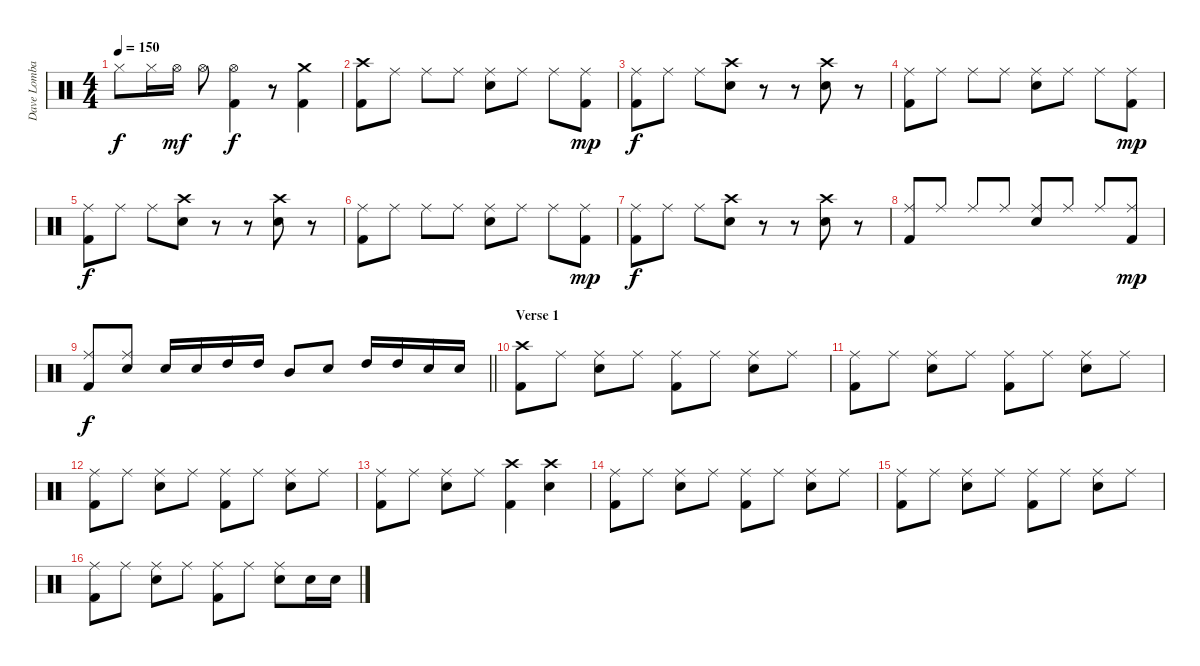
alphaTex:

\track ("Dave Lombardo (Drums)" "Dave Lomba") {instrument percussion}
\staff {score}
\articulation defaults
\ts (4 4)
\tempo 150
\clef neutral
\ks c "Hi-Hat (closed)".8{dy f} "Hi-Hat (closed)".16 "Hi-Hat (open)".16{dy mf} "Hi-Hat (open)".8
("Hi-Hat (open)" "Kick (hit) 2").4{dy f} r.8 ("Crash medium (hit)" "Kick (hit) 2").4 |
("Crash high (hit)" "Kick (hit) 2").8 "Ride (middle)".8 "Ride (middle)".8 "Ride (middle)".8 ("Ride (middle)" "Electric Snare (hit)").8 "Ride (middle)".8 "Ride (middle)".8 ("Ride (middle)" "Kick (hit) 2").8{dy mp} |
("Ride (middle)" "Kick (hit) 2").8{dy f} "Ride (middle)".8 "Ride (middle)".8 ("Crash high (hit)" "Electric Snare (hit)").8 r.8 r.8 ("Crash high (hit)" "Electric Snare (hit)").8 r.8 |
("Ride (middle)" "Kick (hit) 2").8 "Ride (middle)".8 "Ride (middle)".8 "Ride (middle)".8 ("Ride (middle)" "Electric Snare (hit)").8 "Ride (middle)".8 "Ride (middle)".8 ("Ride (middle)" "Kick (hit) 2").8{dy mp} |
("Ride (middle)" "Kick (hit) 2").8{dy f} "Ride (middle)".8 "Ride (middle)".8 ("Crash high (hit)" "Electric Snare (hit)").8 r.8 r.8 ("Crash high (hit)" "Electric Snare (hit)").8 r.8 |
("Ride (middle)" "Kick (hit) 2").8 "Ride (middle)".8 "Ride (middle)".8 "Ride (middle)".8 ("Ride (middle)" "Electric Snare (hit)").8 "Ride (middle)".8 "Ride (middle)".8 ("Ride (middle)" "Kick (hit) 2").8{dy mp} |
("Ride (middle)" "Kick (hit) 2").8{dy f} "Ride (middle)".8 "Ride (middle)".8 ("Crash high (hit)" "Electric Snare (hit)").8 r.8 r.8 ("Crash high (hit)" "Electric Snare (hit)").8 r.8 |
("Ride (middle)" "Kick (hit) 2").8{beam Up} "Ride (middle)".8{beam Up} "Ride (middle)".8{beam Up} "Ride (middle)".8{beam Up} ("Ride (middle)" "Electric Snare (hit)").8{beam Up} "Ride (middle)".8{beam Up} "Ride (middle)".8{beam Up} ("Ride (middle)" "Kick (hit) 2").8{dy mp beam Up} |
\barLineRight lightlight
("Ride (middle)" "Kick (hit) 2").8{dy f beam Up} ("Ride (middle)" "Electric Snare (hit)").8{beam Up} "Electric Snare (hit)".16{beam Up} "Electric Snare (hit)".16{beam Up} "High Tom (hit)".16{beam Up} "High Tom (hit)".16{beam Up} "Mid Tom (hit)".8{beam Up} "Electric Snare (hit)".8{beam Up} "High Tom (hit)".16{beam Up} "High Tom (hit)".16{beam Up} "Electric Snare (hit)".16{beam Up} "Electric Snare (hit)".16{beam Up} |
\section ("" "Verse 1")
("Crash high (hit)" "Kick (hit) 2").8 "Ride (middle)".8 ("Ride (middle)" "Electric Snare (hit)").8 "Ride (middle)".8 ("Ride (middle)" "Kick (hit) 2").8 "Ride (middle)".8 ("Ride (middle)" "Electric Snare (hit)").8 "Ride (middle)".8 |
("Ride (middle)" "Kick (hit) 2").8 "Ride (middle)".8 ("Ride (middle)" "Electric Snare (hit)").8 "Ride (middle)".8 ("Ride (middle)" "Kick (hit) 2").8 "Ride (middle)".8 ("Ride (middle)" "Electric Snare (hit)").8 "Ride (middle)".8 |
("Ride (middle)" "Kick (hit) 2").8 "Ride (middle)".8 ("Ride (middle)" "Electric Snare (hit)").8 "Ride (middle)".8 ("Ride (middle)" "Kick (hit) 2").8 "Ride (middle)".8 ("Ride (middle)" "Electric Snare (hit)").8 "Ride (middle)".8 |
("Ride (middle)" "Kick (hit) 2").8 "Ride (middle)".8 ("Ride (middle)" "Electric Snare (hit)").8 "Ride (middle)".8 ("Crash high (hit)" "Kick (hit) 2").4 ("Crash high (hit)" "Electric Snare (hit)").4 |
("Ride (middle)" "Kick (hit) 2").8 "Ride (middle)".8 ("Ride (middle)" "Electric Snare (hit)").8 "Ride (middle)".8 ("Ride (middle)" "Kick (hit) 2").8 "Ride (middle)".8 ("Ride (middle)" "Electric Snare (hit)").8 "Ride (middle)".8 |
("Ride (middle)" "Kick (hit) 2").8 "Ride (middle)".8 ("Ride (middle)" "Electric Snare (hit)").8 "Ride (middle)".8 ("Ride (middle)" "Kick (hit) 2").8 "Ride (middle)".8 ("Ride (middle)" "Electric Snare (hit)").8 "Ride (middle)".8 |
("Ride (middle)" "Kick (hit) 2").8 "Ride (middle)".8 ("Ride (middle)" "Electric Snare (hit)").8 "Ride (middle)".8 ("Ride (middle)" "Kick (hit) 2").8 "Ride (middle)".8 ("Ride (middle)" "Electric Snare (hit)").8 "Electric Snare (hit)".16 "Electric Snare (hit)".16
